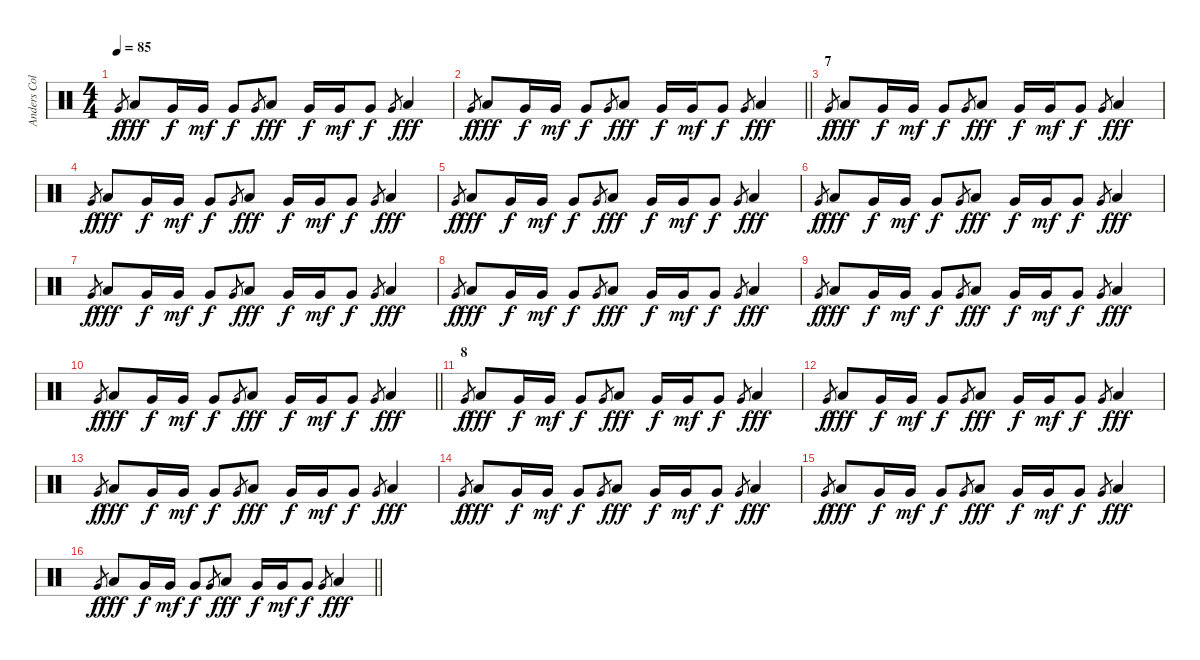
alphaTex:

\track ("Anders Colsefni" "Anders Col") {instrument percussion}
\staff {score}
\articulation defaults
\ts (4 4)
\tempo 85
\clef neutral
\ks c "Very Low Tom (hit)".8{gr dy f} "Low Tom (hit)".8{dy fff} "Very Low Tom (hit)".16{dy f} "Very Low Tom (hit)".16{dy mf} "Very Low Tom (hit)".8{dy f} "Very Low Tom (hit)".8{gr} "Low Tom (hit)".8{dy fff} "Very Low Tom (hit)".16{dy f} "Very Low Tom (hit)".16{dy mf} "Very Low Tom (hit)".8{dy f} "Very Low Tom (hit)".8{gr} "Low Tom (hit)".4{dy fff}
|
\barLineRight lightlight "Very Low Tom (hit)".8{gr dy f} "Low Tom (hit)".8{dy fff} "Very Low Tom (hit)".16{dy f} "Very Low Tom (hit)".16{dy mf} "Very Low Tom (hit)".8{dy f} "Very Low Tom (hit)".8{gr} "Low Tom (hit)".8{dy fff} "Very Low Tom (hit)".16{dy f} "Very Low Tom (hit)".16{dy mf} "Very Low Tom (hit)".8{dy f} "Very Low Tom (hit)".8{gr} "Low Tom (hit)".4{dy fff}
|
\section ("" "7")
"Very Low Tom (hit)".8{gr dy f} "Low Tom (hit)".8{dy fff} "Very Low Tom (hit)".16{dy f} "Very Low Tom (hit)".16{dy mf} "Very Low Tom (hit)".8{dy f} "Very Low Tom (hit)".8{gr} "Low Tom (hit)".8{dy fff} "Very Low Tom (hit)".16{dy f} "Very Low Tom (hit)".16{dy mf} "Very Low Tom (hit)".8{dy f} "Very Low Tom (hit)".8{gr} "Low Tom (hit)".4{dy fff} |
"Very Low Tom (hit)".8{gr dy f} "Low Tom (hit)".8{dy fff} "Very Low Tom (hit)".16{dy f} "Very Low Tom (hit)".16{dy mf} "Very Low Tom (hit)".8{dy f} "Very Low Tom (hit)".8{gr} "Low Tom (hit)".8{dy fff} "Very Low Tom (hit)".16{dy f} "Very Low Tom (hit)".16{dy mf} "Very Low Tom (hit)".8{dy f} "Very Low Tom (hit)".8{gr} "Low Tom (hit)".4{dy fff} |
"Very Low Tom (hit)".8{gr dy f} "Low Tom (hit)".8{dy fff} "Very Low Tom (hit)".16{dy f} "Very Low Tom (hit)".16{dy mf} "Very Low Tom (hit)".8{dy f} "Very Low Tom (hit)".8{gr} "Low Tom (hit)".8{dy fff} "Very Low Tom (hit)".16{dy f} "Very Low Tom (hit)".16{dy mf} "Very Low Tom (hit)".8{dy f} "Very Low Tom (hit)".8{gr} "Low Tom (hit)".4{dy fff} |
"Very Low Tom (hit)".8{gr dy f} "Low Tom (hit)".8{dy fff} "Very Low Tom (hit)".16{dy f} "Very Low Tom (hit)".16{dy mf} "Very Low Tom (hit)".8{dy f} "Very Low Tom (hit)".8{gr} "Low Tom (hit)".8{dy fff} "Very Low Tom (hit)".16{dy f} "Very Low Tom (hit)".16{dy mf} "Very Low Tom (hit)".8{dy f} "Very Low Tom (hit)".8{gr} "Low Tom (hit)".4{dy fff} |
"Very Low Tom (hit)".8{gr dy f} "Low Tom (hit)".8{dy fff} "Very Low Tom (hit)".16{dy f} "Very Low Tom (hit)".16{dy mf} "Very Low Tom (hit)".8{dy f} "Very Low Tom (hit)".8{gr} "Low Tom (hit)".8{dy fff} "Very Low Tom (hit)".16{dy f} "Very Low Tom (hit)".16{dy mf} "Very Low Tom (hit)".8{dy f} "Very Low Tom (hit)".8{gr} "Low Tom (hit)".4{dy fff} |
"Very Low Tom (hit)".8{gr dy f} "Low Tom (hit)".8{dy fff} "Very Low Tom (hit)".16{dy f} "Very Low Tom (hit)".16{dy mf} "Very Low Tom (hit)".8{dy f} "Very Low Tom (hit)".8{gr} "Low Tom (hit)".8{dy fff} "Very Low Tom (hit)".16{dy f} "Very Low Tom (hit)".16{dy mf} "Very Low Tom (hit)".8{dy f} "Very Low Tom (hit)".8{gr} "Low Tom (hit)".4{dy fff} |
"Very Low Tom (hit)".8{gr dy f} "Low Tom (hit)".8{dy fff} "Very Low Tom (hit)".16{dy f} "Very Low Tom (hit)".16{dy mf} "Very Low Tom (hit)".8{dy f} "Very Low Tom (hit)".8{gr} "Low Tom (hit)".8{dy fff} "Very Low Tom (hit)".16{dy f} "Very Low Tom (hit)".16{dy mf} "Very Low Tom (hit)".8{dy f} "Very Low Tom (hit)".8{gr} "Low Tom (hit)".4{dy fff} |
\barLineRight lightlight "Very Low Tom (hit)".8{gr dy f} "Low Tom (hit)".8{dy fff} "Very Low Tom (hit)".16{dy f} "Very Low Tom (hit)".16{dy mf} "Very Low Tom (hit)".8{dy f} "Very Low Tom (hit)".8{gr} "Low Tom (hit)".8{dy fff} "Very Low Tom (hit)".16{dy f} "Very Low Tom (hit)".16{dy mf} "Very Low Tom (hit)".8{dy f} "Very Low Tom (hit)".8{gr} "Low Tom (hit)".4{dy fff}
|
\section ("" "8")
"Very Low Tom (hit)".8{gr dy f} "Low Tom (hit)".8{dy fff} "Very Low Tom (hit)".16{dy f} "Very Low Tom (hit)".16{dy mf} "Very Low Tom (hit)".8{dy f} "Very Low Tom (hit)".8{gr} "Low Tom (hit)".8{dy fff} "Very Low Tom (hit)".16{dy f} "Very Low Tom (hit)".16{dy mf} "Very Low Tom (hit)".8{dy f} "Very Low Tom (hit)".8{gr} "Low Tom (hit)".4{dy fff} |
"Very Low Tom (hit)".8{gr dy f} "Low Tom (hit)".8{dy fff} "Very Low Tom (hit)".16{dy f} "Very Low Tom (hit)".16{dy mf} "Very Low Tom (hit)".8{dy f} "Very Low Tom (hit)".8{gr} "Low Tom (hit)".8{dy fff} "Very Low Tom (hit)".16{dy f} "Very Low Tom (hit)".16{dy mf} "Very Low Tom (hit)".8{dy f} "Very Low Tom (hit)".8{gr} "Low Tom (hit)".4{dy fff} |
"Very Low Tom (hit)".8{gr dy f} "Low Tom (hit)".8{dy fff} "Very Low Tom (hit)".16{dy f} "Very Low Tom (hit)".16{dy mf} "Very Low Tom (hit)".8{dy f} "Very Low Tom (hit)".8{gr} "Low Tom (hit)".8{dy fff} "Very Low Tom (hit)".16{dy f} "Very Low Tom (hit)".16{dy mf} "Very Low Tom (hit)".8{dy f} "Very Low Tom (hit)".8{gr} "Low Tom (hit)".4{dy fff} |
"Very Low Tom (hit)".8{gr dy f} "Low Tom (hit)".8{dy fff} "Very Low Tom (hit)".16{dy f} "Very Low Tom (hit)".16{dy mf} "Very Low Tom (hit)".8{dy f} "Very Low Tom (hit)".8{gr} "Low Tom (hit)".8{dy fff} "Very Low Tom (hit)".16{dy f} "Very Low Tom (hit)".16{dy mf} "Very Low Tom (hit)".8{dy f} "Very Low Tom (hit)".8{gr} "Low Tom (hit)".4{dy fff} |
"Very Low Tom (hit)".8{gr dy f} "Low Tom (hit)".8{dy fff} "Very Low Tom (hit)".16{dy f} "Very Low Tom (hit)".16{dy mf} "Very Low Tom (hit)".8{dy f} "Very Low Tom (hit)".8{gr} "Low Tom (hit)".8{dy fff} "Very Low Tom (hit)".16{dy f} "Very Low Tom (hit)".16{dy mf} "Very Low Tom (hit)".8{dy f} "Very Low Tom (hit)".8{gr} "Low Tom (hit)".4{dy fff} |
\barLineRight lightlight "Very Low Tom (hit)".8{gr dy f} "Low Tom (hit)".8{dy fff} "Very Low Tom (hit)".16{dy f} "Very Low Tom (hit)".16{dy mf} "Very Low Tom (hit)".8{dy f} "Very Low Tom (hit)".8{gr} "Low Tom (hit)".8{dy fff} "Very Low Tom (hit)".16{dy f} "Very Low Tom (hit)".16{dy mf} "Very Low Tom (hit)".8{dy f} "Very Low Tom (hit)".8{gr} "Low Tom (hit)".4{dy fff}
